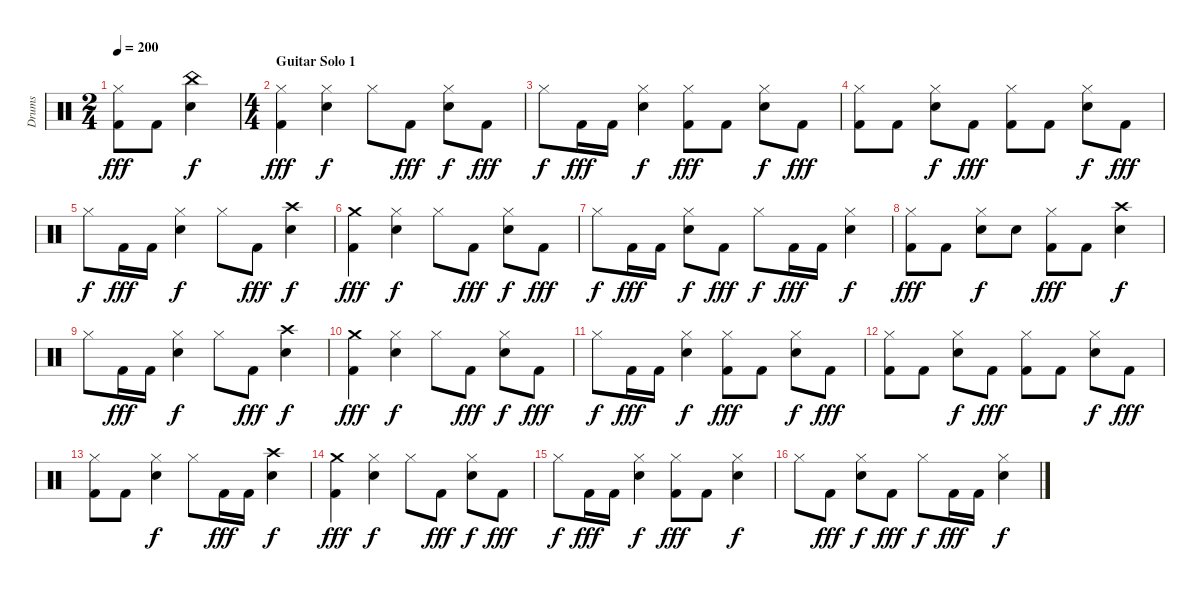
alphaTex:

\track ("Drums" "Drums") {instrument percussion}
\staff {score}
\articulation defaults
\ts (2 4)
\tempo 200
\clef neutral
\ks c
("Hi-Hat (closed)" "Kick (hit) 2").8{dy fff} "Kick (hit) 2".8 ("China (hit)" "Snare (hit) 2").4{dy f} |
\ts (4 4)
\section ("" "Guitar Solo 1")
("Hi-Hat (closed)" "Kick (hit) 2").4{dy fff} ("Hi-Hat (closed)" "Snare (hit) 2").4{dy f} "Hi-Hat (closed)".8 "Kick (hit) 2".8{dy fff} ("Hi-Hat (closed)" "Snare (hit) 2").8{dy f} "Kick (hit) 2".8{dy fff} |
"Hi-Hat (closed)".8{dy f} "Kick (hit) 2".16{dy fff} "Kick (hit) 2".16 ("Hi-Hat (closed)" "Snare (hit) 2").4{dy f} ("Hi-Hat (closed)" "Kick (hit) 2").8{dy fff} "Kick (hit) 2".8 ("Hi-Hat (closed)" "Snare (hit) 2").8{dy f} "Kick (hit) 2".8{dy fff} |
("Hi-Hat (closed)" "Kick (hit) 2").8 "Kick (hit) 2".8 ("Hi-Hat (closed)" "Snare (hit) 2").8{dy f} "Kick (hit) 2".8{dy fff} ("Hi-Hat (closed)" "Kick (hit) 2").8 "Kick (hit) 2".8 ("Hi-Hat (closed)" "Snare (hit) 2").8{dy f} "Kick (hit) 2".8{dy fff} |
"Hi-Hat (closed)".8{dy f} "Kick (hit) 2".16{dy fff} "Kick (hit) 2".16 ("Hi-Hat (closed)" "Snare (hit) 2").4{dy f} "Hi-Hat (closed)".8 "Kick (hit) 2".8{dy fff} ("Crash high (hit)" "Snare (hit) 2").4{dy f} |
("Crash medium (hit)" "Kick (hit) 2").4{dy fff} ("Hi-Hat (closed)" "Snare (hit) 2").4{dy f} "Hi-Hat (closed)".8 "Kick (hit) 2".8{dy fff} ("Hi-Hat (closed)" "Snare (hit) 2").8{dy f} "Kick (hit) 2".8{dy fff} |
"Hi-Hat (closed)".8{dy f} "Kick (hit) 2".16{dy fff} "Kick (hit) 2".16 ("Hi-Hat (closed)" "Snare (hit) 2").8{dy f} "Kick (hit) 2".8{dy fff} "Hi-Hat (closed)".8{dy f} "Kick (hit) 2".16{dy fff} "Kick (hit) 2".16 ("Hi-Hat (closed)" "Snare (hit) 2").4{dy f} |
("Hi-Hat (closed)" "Kick (hit) 2").8{dy fff} "Kick (hit) 2".8 ("Hi-Hat (closed)" "Snare (hit) 2").8{dy f} "Snare (hit) 2".8 ("Hi-Hat (closed)" "Kick (hit) 2").8{dy fff} "Kick (hit) 2".8 ("Crash high (hit)" "Snare (hit) 2").4{dy f} |
"Hi-Hat (closed)".8 "Kick (hit) 2".16{dy fff} "Kick (hit) 2".16 ("Hi-Hat (closed)" "Snare (hit) 2").4{dy f} "Hi-Hat (closed)".8 "Kick (hit) 2".8{dy fff} ("Crash high (hit)" "Snare (hit) 2").4{dy f} |
("Crash medium (hit)" "Kick (hit) 2").4{dy fff} ("Hi-Hat (closed)" "Snare (hit) 2").4{dy f} "Hi-Hat (closed)".8 "Kick (hit) 2".8{dy fff} ("Hi-Hat (closed)" "Snare (hit) 2").8{dy f} "Kick (hit) 2".8{dy fff} |
"Hi-Hat (closed)".8{dy f} "Kick (hit) 2".16{dy fff} "Kick (hit) 2".16 ("Hi-Hat (closed)" "Snare (hit) 2").4{dy f} ("Hi-Hat (closed)" "Kick (hit) 2").8{dy fff} "Kick (hit) 2".8 ("Hi-Hat (closed)" "Snare (hit) 2").8{dy f} "Kick (hit) 2".8{dy fff} |
("Hi-Hat (closed)" "Kick (hit) 2").8 "Kick (hit) 2".8 ("Hi-Hat (closed)" "Snare (hit) 2").8{dy f} "Kick (hit) 2".8{dy fff} ("Hi-Hat (closed)" "Kick (hit) 2").8 "Kick (hit) 2".8 ("Hi-Hat (closed)" "Snare (hit) 2").8{dy f} "Kick (hit) 2".8{dy fff} |
("Hi-Hat (closed)" "Kick (hit) 2").8 "Kick (hit) 2".8 ("Hi-Hat (closed)" "Snare (hit) 2").4{dy f} "Hi-Hat (closed)".8 "Kick (hit) 2".16{dy fff} "Kick (hit) 2".16 ("Crash high (hit)" "Snare (hit) 2").4{dy f} |
("Crash medium (hit)" "Kick (hit) 2").4{dy fff} ("Hi-Hat (closed)" "Snare (hit) 2").4{dy f} "Hi-Hat (closed)".8 "Kick (hit) 2".8{dy fff} ("Hi-Hat (closed)" "Snare (hit) 2").8{dy f} "Kick (hit) 2".8{dy fff} |
"Hi-Hat (closed)".8{dy f} "Kick (hit) 2".16{dy fff} "Kick (hit) 2".16 ("Hi-Hat (closed)" "Snare (hit) 2").4{dy f} ("Hi-Hat (closed)" "Kick (hit) 2").8{dy fff} "Kick (hit) 2".8 ("Hi-Hat (closed)" "Snare (hit) 2").4{dy f} |
"Hi-Hat (closed)".8 "Kick (hit) 2".8{dy fff} ("Hi-Hat (closed)" "Snare (hit) 2").8{dy f} "Kick (hit) 2".8{dy fff} "Hi-Hat (closed)".8{dy f} "Kick (hit) 2".16{dy fff} "Kick (hit) 2".16 ("Hi-Hat (closed)" "Snare (hit) 2").4{dy f}
